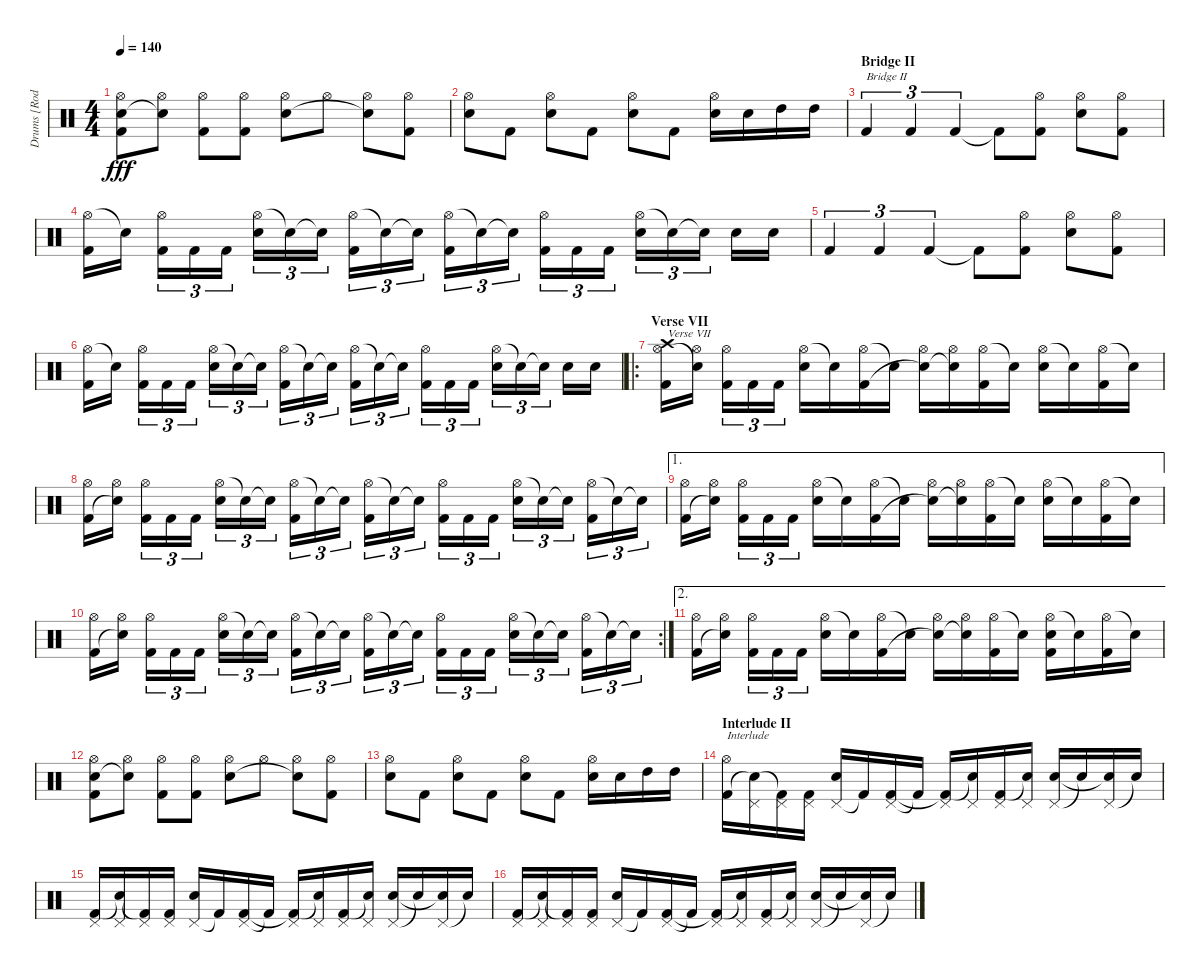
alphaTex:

\track ("Drums [Rodney Holder]" "Drums [Rod") {instrument percussion}
\staff {score}
\articulation defaults
\ts (4 4)
\tempo 140
\clef neutral
\ks c
("Hi-Hat (open)" "Electric Snare (hit)" "Kick (hit) 2").8{dy fff} ("Hi-Hat (open)" "Electric Snare (hit)"{t}).8 ("Hi-Hat (open)" "Kick (hit) 2").8 ("Hi-Hat (open)" "Kick (hit) 2").8 ("Hi-Hat (open)" "Electric Snare (hit)").8 "Hi-Hat (open)".8 ("Hi-Hat (open)" "Snare (hit)"{t}).8 ("Hi-Hat (open)" "Kick (hit) 2").8 |
("Hi-Hat (open)" "Electric Snare (hit)").8 "Kick (hit) 2".8 ("Hi-Hat (open)" "Electric Snare (hit)").8 "Kick (hit) 2".8 ("Hi-Hat (open)" "Electric Snare (hit)").8 "Kick (hit) 2".8 ("Hi-Hat (open)" "Electric Snare (hit)").16 "Electric Snare (hit)".16 "High Tom (hit)".16 "High Tom (hit)".16 |
\section ("" "Bridge II")
"Kick (hit) 2".4{tu (3 2) txt "Bridge II"} "Kick (hit) 2".4{tu (3 2)} "Kick (hit) 2".4{tu (3 2)} "Kick (hit) 2"{t}.8 ("Hi-Hat (open)" "Kick (hit) 2").8 ("Hi-Hat (open)" "Electric Snare (hit)").8 ("Hi-Hat (open)" "Kick (hit) 2").8 |
("Hi-Hat (open)" "Kick (hit) 2").16 "Snare (hit)"{t}.16 ("Hi-Hat (open)" "Kick (hit) 2").16{tu (3 2)} "Kick (hit) 2".16{tu (3 2)} "Kick (hit) 2".16{tu (3 2)} ("Hi-Hat (open)" "Electric Snare (hit)").16{tu (3 2)} "Snare (hit)"{t}.16{tu (3 2)} "Snare (hit)"{t}.16{tu (3 2)} ("Hi-Hat (open)" "Kick (hit) 2").16{tu (3 2)} "Snare (hit)"{t}.16{tu (3 2)} "Snare (hit)"{t}.16{tu (3 2)} ("Hi-Hat (open)" "Kick (hit) 2").16{tu (3 2)} "Snare (hit)"{t}.16{tu (3 2)} "Snare (hit)"{t}.16{tu (3 2)} ("Hi-Hat (open)" "Kick (hit) 2").16{tu (3 2)} "Kick (hit) 2".16{tu (3 2)} "Kick (hit) 2".16{tu (3 2)} ("Hi-Hat (open)" "Electric Snare (hit)").16{tu (3 2)} "Snare (hit)"{t}.16{tu (3 2)} "Snare (hit)"{t}.16{tu (3 2)} "Electric Snare (hit)".16 "Electric Snare (hit)".16 |
"Kick (hit) 2".4{tu (3 2)} "Kick (hit) 2".4{tu (3 2)} "Kick (hit) 2".4{tu (3 2)} "Kick (hit) 2"{t}.8 ("Hi-Hat (open)" "Kick (hit) 2").8 ("Hi-Hat (open)" "Electric Snare (hit)").8 ("Hi-Hat (open)" "Kick (hit) 2").8 |
("Hi-Hat (open)" "Kick (hit) 2").16 "Snare (hit)"{t}.16 ("Hi-Hat (open)" "Kick (hit) 2").16{tu (3 2)} "Kick (hit) 2".16{tu (3 2)} "Kick (hit) 2".16{tu (3 2)} ("Hi-Hat (open)" "Electric Snare (hit)").16{tu (3 2)} "Snare (hit)"{t}.16{tu (3 2)} "Snare (hit)"{t}.16{tu (3 2)} ("Hi-Hat (open)" "Kick (hit) 2").16{tu (3 2)} "Snare (hit)"{t}.16{tu (3 2)} "Snare (hit)"{t}.16{tu (3 2)} ("Hi-Hat (open)" "Kick (hit) 2").16{tu (3 2)} "Snare (hit)"{t}.16{tu (3 2)} "Snare (hit)"{t}.16{tu (3 2)} ("Hi-Hat (open)" "Kick (hit) 2").16{tu (3 2)} "Kick (hit) 2".16{tu (3 2)} "Kick (hit) 2".16{tu (3 2)} ("Hi-Hat (open)" "Electric Snare (hit)").16{tu (3 2)} "Snare (hit)"{t}.16{tu (3 2)} "Snare (hit)"{t}.16{tu (3 2)} "Electric Snare (hit)".16 "Electric Snare (hit)".16 |
\ro
\section ("" "Verse VII")
("Crash high (hit)" "Hi-Hat (open)" "Kick (hit) 2").16{txt "Verse VII"} ("Hi-Hat (open)" "Snare (hit)"{t}).16 ("Hi-Hat (open)" "Kick (hit) 2").16{tu (3 2)} "Kick (hit) 2".16{tu (3 2)} "Kick (hit) 2".16{tu (3 2)} ("Hi-Hat (open)" "Electric Snare (hit)").16 "Snare (hit)"{t}.16 ("Hi-Hat (open)" "Kick (hit) 2").16 "Snare (hit)"{t}.16 ("Hi-Hat (open)" "Snare (hit)"{t}).16 ("Hi-Hat (open)" "Snare (hit)"{t}).16 ("Hi-Hat (open)" "Kick (hit) 2").16 "Snare (hit)"{t}.16 ("Hi-Hat (open)" "Electric Snare (hit)").16 "Snare (hit)"{t}.16 ("Hi-Hat (open)" "Kick (hit) 2").16 "Snare (hit)"{t}.16 |
("Hi-Hat (open)" "Kick (hit) 2").16 ("Hi-Hat (open)" "Snare (hit)"{t}).16 ("Hi-Hat (open)" "Kick (hit) 2").16{tu (3 2)} "Kick (hit) 2".16{tu (3 2)} "Kick (hit) 2".16{tu (3 2)} ("Hi-Hat (open)" "Electric Snare (hit)").16{tu (3 2)} "Snare (hit)"{t}.16{tu (3 2)} "Snare (hit)"{t}.16{tu (3 2)} ("Hi-Hat (open)" "Kick (hit) 2").16{tu (3 2)} "Snare (hit)"{t}.16{tu (3 2)} "Snare (hit)"{t}.16{tu (3 2)} ("Hi-Hat (open)" "Kick (hit) 2").16{tu (3 2)} "Snare (hit)"{t}.16{tu (3 2)} "Snare (hit)"{t}.16{tu (3 2)} ("Hi-Hat (open)" "Kick (hit) 2").16{tu (3 2)} "Kick (hit) 2".16{tu (3 2)} "Kick (hit) 2".16{tu (3 2)} ("Hi-Hat (open)" "Electric Snare (hit)").16{tu (3 2)} "Snare (hit)"{t}.16{tu (3 2)} "Snare (hit)"{t}.16{tu (3 2)} ("Hi-Hat (open)" "Kick (hit) 2").16{tu (3 2)} "Snare (hit)"{t}.16{tu (3 2)} "Snare (hit)"{t}.16{tu (3 2)} |
\ae 1
("Hi-Hat (open)" "Kick (hit) 2").16 ("Hi-Hat (open)" "Snare (hit)"{t}).16 ("Hi-Hat (open)" "Kick (hit) 2").16{tu (3 2)} "Kick (hit) 2".16{tu (3 2)} "Kick (hit) 2".16{tu (3 2)} ("Hi-Hat (open)" "Electric Snare (hit)").16 "Snare (hit)"{t}.16 ("Hi-Hat (open)" "Kick (hit) 2").16 "Snare (hit)"{t}.16 ("Hi-Hat (open)" "Snare (hit)"{t}).16 ("Hi-Hat (open)" "Snare (hit)"{t}).16 ("Hi-Hat (open)" "Kick (hit) 2").16 "Snare (hit)"{t}.16 ("Hi-Hat (open)" "Electric Snare (hit)").16 "Snare (hit)"{t}.16 ("Hi-Hat (open)" "Kick (hit) 2").16 "Snare (hit)"{t}.16 |
\rc 2
("Hi-Hat (open)" "Kick (hit) 2").16 ("Hi-Hat (open)" "Snare (hit)"{t}).16 ("Hi-Hat (open)" "Kick (hit) 2").16{tu (3 2)} "Kick (hit) 2".16{tu (3 2)} "Kick (hit) 2".16{tu (3 2)} ("Hi-Hat (open)" "Electric Snare (hit)").16{tu (3 2)} "Snare (hit)"{t}.16{tu (3 2)} "Snare (hit)"{t}.16{tu (3 2)} ("Hi-Hat (open)" "Kick (hit) 2").16{tu (3 2)} "Snare (hit)"{t}.16{tu (3 2)} "Snare (hit)"{t}.16{tu (3 2)} ("Hi-Hat (open)" "Kick (hit) 2").16{tu (3 2)} "Snare (hit)"{t}.16{tu (3 2)} "Snare (hit)"{t}.16{tu (3 2)} ("Hi-Hat (open)" "Kick (hit) 2").16{tu (3 2)} "Kick (hit) 2".16{tu (3 2)} "Kick (hit) 2".16{tu (3 2)} ("Hi-Hat (open)" "Electric Snare (hit)").16{tu (3 2)} "Snare (hit)"{t}.16{tu (3 2)} "Snare (hit)"{t}.16{tu (3 2)} ("Hi-Hat (open)" "Kick (hit) 2").16{tu (3 2)} "Snare (hit)"{t}.16{tu (3 2)} "Snare (hit)"{t}.16{tu (3 2)} |
\ae 2
("Hi-Hat (open)" "Kick (hit) 2").16 ("Hi-Hat (open)" "Snare (hit)"{t}).16 ("Hi-Hat (open)" "Kick (hit) 2").16{tu (3 2)} "Kick (hit) 2".16{tu (3 2)} "Kick (hit) 2".16{tu (3 2)} ("Hi-Hat (open)" "Electric Snare (hit)").16 "Snare (hit)"{t}.16 ("Hi-Hat (open)" "Kick (hit) 2").16 "Snare (hit)"{t}.16 ("Hi-Hat (open)" "Snare (hit)"{t}).16 ("Hi-Hat (open)" "Snare (hit)"{t}).16 ("Hi-Hat (open)" "Kick (hit) 2").16 "Snare (hit)"{t}.16 ("Hi-Hat (open)" "Electric Snare (hit)" "Kick (hit) 2").16 "Snare (hit)"{t}.16 ("Hi-Hat (open)" "Kick (hit) 2").16 "Snare (hit)"{t}.16 |
("Hi-Hat (open)" "Electric Snare (hit)" "Kick (hit) 2").8 ("Hi-Hat (open)" "Electric Snare (hit)"{t}).8 ("Hi-Hat (open)" "Kick (hit) 2").8 ("Hi-Hat (open)" "Kick (hit) 2").8 ("Hi-Hat (open)" "Electric Snare (hit)").8 "Hi-Hat (open)".8 ("Hi-Hat (open)" "Snare (hit)"{t}).8 ("Hi-Hat (open)" "Kick (hit) 2").8 |
("Hi-Hat (open)" "Electric Snare (hit)").8 "Kick (hit) 2".8 ("Hi-Hat (open)" "Electric Snare (hit)").8 "Kick (hit) 2".8 ("Hi-Hat (open)" "Electric Snare (hit)").8 "Kick (hit) 2".8 ("Hi-Hat (open)" "Electric Snare (hit)").16 "Electric Snare (hit)".16 "High Tom (hit)".16 "High Tom (hit)".16 |
\section ("" "Interlude II")
("Hi-Hat (open)" "Kick (hit) 2").16{txt "Interlude"} ("Pedal Hi-Hat (hit)" "Snare (hit)"{t}).16 ("Pedal Hi-Hat (hit)" "Kick (hit) 2"{t}).16 ("Pedal Hi-Hat (hit)" "Kick (hit) 2").16 ("Pedal Hi-Hat (hit)" "Electric Snare (hit)").16 "Kick (hit) 2"{t}.16 ("Pedal Hi-Hat (hit)" "Kick (hit) 2").16 "Kick (hit) 2"{t}.16 ("Pedal Hi-Hat (hit)" "Kick (hit) 2"{t}).16 ("Pedal Hi-Hat (hit)" "Snare (hit)"{t}).16 ("Pedal Hi-Hat (hit)" "Kick (hit) 2").16 ("Pedal Hi-Hat (hit)" "Snare (hit)"{t}).16 ("Pedal Hi-Hat (hit)" "Electric Snare (hit)").16 "Snare (hit)"{t}.16 ("Pedal Hi-Hat (hit)" "Snare (hit)"{t}).16 "Snare (hit)"{t}.16 |
("Pedal Hi-Hat (hit)" "Kick (hit) 2").16 ("Pedal Hi-Hat (hit)" "Snare (hit)"{t}).16 ("Pedal Hi-Hat (hit)" "Kick (hit) 2"{t}).16 ("Pedal Hi-Hat (hit)" "Kick (hit) 2").16 ("Pedal Hi-Hat (hit)" "Electric Snare (hit)").16 "Kick (hit) 2"{t}.16 ("Pedal Hi-Hat (hit)" "Kick (hit) 2").16 "Kick (hit) 2"{t}.16 ("Pedal Hi-Hat (hit)" "Kick (hit) 2"{t}).16 ("Pedal Hi-Hat (hit)" "Snare (hit)"{t}).16 ("Pedal Hi-Hat (hit)" "Kick (hit) 2").16 ("Pedal Hi-Hat (hit)" "Snare (hit)"{t}).16 ("Pedal Hi-Hat (hit)" "Electric Snare (hit)").16 "Snare (hit)"{t}.16 ("Pedal Hi-Hat (hit)" "Snare (hit)"{t}).16 "Snare (hit)"{t}.16 |
("Pedal Hi-Hat (hit)" "Kick (hit) 2").16 ("Pedal Hi-Hat (hit)" "Snare (hit)"{t}).16 ("Pedal Hi-Hat (hit)" "Kick (hit) 2"{t}).16 ("Pedal Hi-Hat (hit)" "Kick (hit) 2").16 ("Pedal Hi-Hat (hit)" "Electric Snare (hit)").16 "Kick (hit) 2"{t}.16 ("Pedal Hi-Hat (hit)" "Kick (hit) 2").16 "Kick (hit) 2"{t}.16 ("Pedal Hi-Hat (hit)" "Kick (hit) 2"{t}).16 ("Pedal Hi-Hat (hit)" "Snare (hit)"{t}).16 ("Pedal Hi-Hat (hit)" "Kick (hit) 2").16 ("Pedal Hi-Hat (hit)" "Snare (hit)"{t}).16 ("Pedal Hi-Hat (hit)" "Electric Snare (hit)").16 "Snare (hit)"{t}.16 ("Pedal Hi-Hat (hit)" "Snare (hit)"{t}).16 "Snare (hit)"{t}.16
